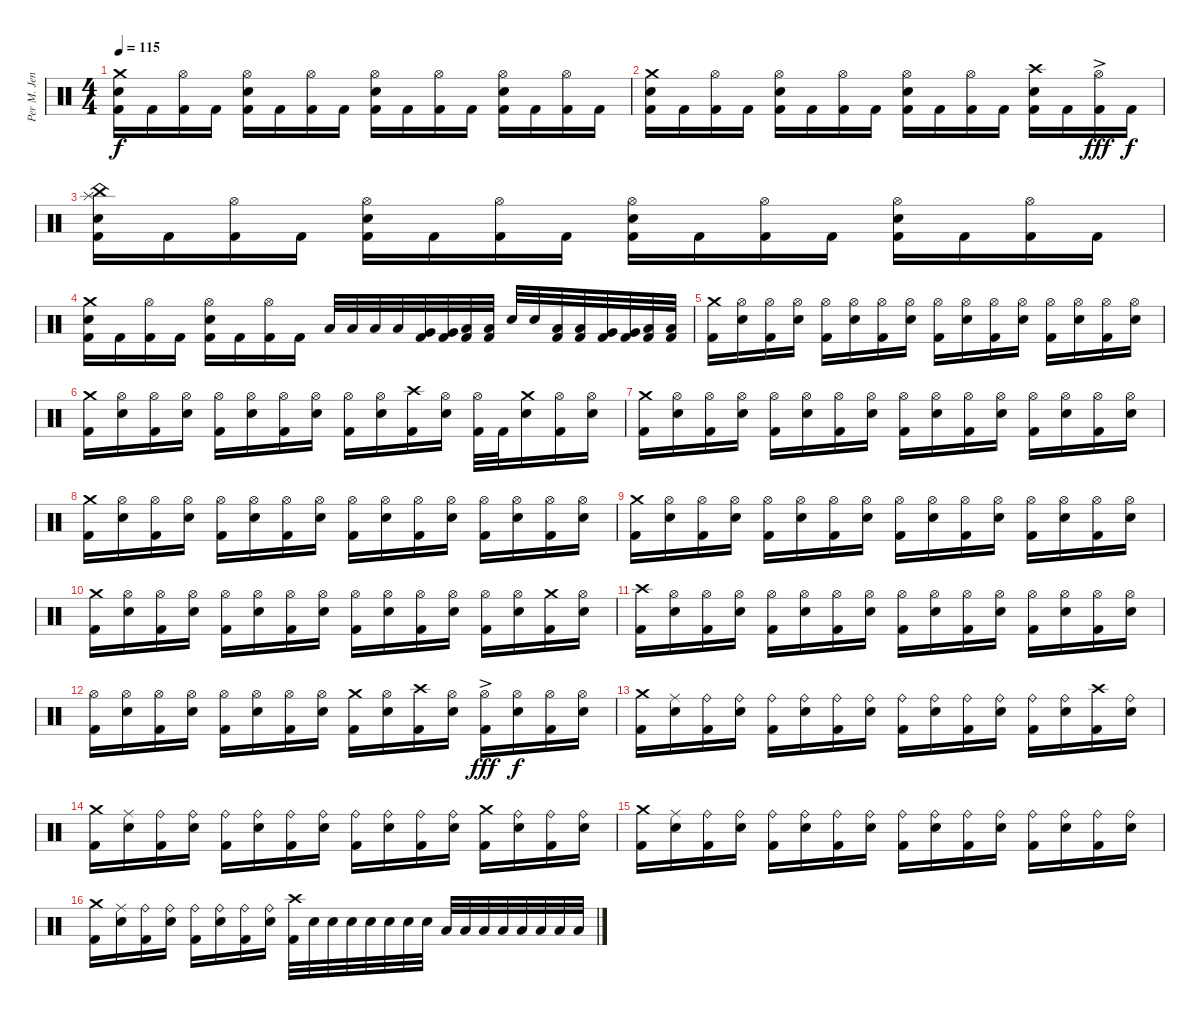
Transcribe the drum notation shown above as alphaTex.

\track ("Per M. Jensen (Ex-Drums)" "Per M. Jen") {instrument percussion}
\staff {score}
\articulation defaults
\ts (4 4)
\tempo 115
\clef neutral
\ks c
("Crash medium (hit)" "Snare (hit) 2" "Kick (hit) 2").16{dy f} "Kick (hit) 2".16 ("Hi-Hat (open)" "Kick (hit) 2").16 "Kick (hit) 2".16 ("Hi-Hat (open)" "Snare (hit) 2" "Kick (hit) 2").16 "Kick (hit) 2".16 ("Hi-Hat (open)" "Kick (hit) 2").16 "Kick (hit) 2".16 ("Hi-Hat (open)" "Snare (hit) 2" "Kick (hit) 2").16 "Kick (hit) 2".16 ("Hi-Hat (open)" "Kick (hit) 2").16 "Kick (hit) 2".16 ("Hi-Hat (open)" "Snare (hit) 2" "Kick (hit) 2").16 "Kick (hit) 2".16 ("Hi-Hat (open)" "Kick (hit) 2").16 "Kick (hit) 2".16 |
("Crash medium (hit)" "Snare (hit) 2" "Kick (hit) 2").16 "Kick (hit) 2".16 ("Hi-Hat (open)" "Kick (hit) 2").16 "Kick (hit) 2".16 ("Hi-Hat (open)" "Snare (hit) 2" "Kick (hit) 2").16 "Kick (hit) 2".16 ("Hi-Hat (open)" "Kick (hit) 2").16 "Kick (hit) 2".16 ("Hi-Hat (open)" "Snare (hit) 2" "Kick (hit) 2").16 "Kick (hit) 2".16 ("Hi-Hat (open)" "Kick (hit) 2").16 "Kick (hit) 2".16 ("Crash high (hit)" "Snare (hit) 2" "Kick (hit) 2").16 "Kick (hit) 2".16 ("Hi-Hat (open)"{ac} "Kick (hit) 2").16{dy fff} "Kick (hit) 2".16{dy f} |
("Splash (hit)" "China (hit)" "Snare (hit) 2" "Kick (hit) 2").16 "Kick (hit) 2".16 ("Hi-Hat (open)" "Kick (hit) 2").16 "Kick (hit) 2".16 ("Hi-Hat (open)" "Snare (hit) 2" "Kick (hit) 2").16 "Kick (hit) 2".16 ("Hi-Hat (open)" "Kick (hit) 2").16 "Kick (hit) 2".16 ("Hi-Hat (open)" "Snare (hit) 2" "Kick (hit) 2").16 "Kick (hit) 2".16 ("Hi-Hat (open)" "Kick (hit) 2").16 "Kick (hit) 2".16 ("Hi-Hat (open)" "Snare (hit) 2" "Kick (hit) 2").16 "Kick (hit) 2".16 ("Hi-Hat (open)" "Kick (hit) 2").16 "Kick (hit) 2".16 |
("Crash medium (hit)" "Snare (hit) 2" "Kick (hit) 2").16 "Kick (hit) 2".16 ("Hi-Hat (open)" "Kick (hit) 2").16 "Kick (hit) 2".16 ("Hi-Hat (open)" "Snare (hit) 2" "Kick (hit) 2").16 "Kick (hit) 2".16 ("Hi-Hat (open)" "Kick (hit) 2").16 "Kick (hit) 2".16 "Low Tom (hit)".32 "Low Tom (hit)".32 "Low Tom (hit)".32 "Low Tom (hit)".32 ("Very Low Tom (hit)" "Kick (hit) 2").32 ("Very Low Tom (hit)" "Kick (hit) 2").32 ("Low Floor Tom (hit)" "Kick (hit) 2").32 ("Low Floor Tom (hit)" "Kick (hit) 2").32 "Snare (hit) 2".32 "Snare (hit) 2".32 ("Low Tom (hit)" "Kick (hit) 2").32 ("Low Tom (hit)" "Kick (hit) 2").32 ("Very Low Tom (hit)" "Kick (hit) 2").32 ("Very Low Tom (hit)" "Kick (hit) 2").32 ("Low Floor Tom (hit)" "Kick (hit) 2").32 ("Low Floor Tom (hit)" "Kick (hit) 2").32 |
("Crash medium (hit)" "Kick (hit) 2").16 ("Hi-Hat (open)" "Snare (hit) 2").16 ("Hi-Hat (open)" "Kick (hit) 2").16 ("Hi-Hat (open)" "Snare (hit) 2").16 ("Hi-Hat (open)" "Kick (hit) 2").16 ("Hi-Hat (open)" "Snare (hit) 2").16 ("Hi-Hat (open)" "Kick (hit) 2").16 ("Hi-Hat (open)" "Snare (hit) 2").16 ("Hi-Hat (open)" "Kick (hit) 2").16 ("Hi-Hat (open)" "Snare (hit) 2").16 ("Hi-Hat (open)" "Kick (hit) 2").16 ("Hi-Hat (open)" "Snare (hit) 2").16 ("Hi-Hat (open)" "Kick (hit) 2").16 ("Hi-Hat (open)" "Snare (hit) 2").16 ("Hi-Hat (open)" "Kick (hit) 2").16 ("Hi-Hat (open)" "Snare (hit) 2").16 |
("Crash medium (hit)" "Kick (hit) 2").16 ("Hi-Hat (open)" "Snare (hit) 2").16 ("Hi-Hat (open)" "Kick (hit) 2").16 ("Hi-Hat (open)" "Snare (hit) 2").16 ("Hi-Hat (open)" "Kick (hit) 2").16 ("Hi-Hat (open)" "Snare (hit) 2").16 ("Hi-Hat (open)" "Kick (hit) 2").16 ("Hi-Hat (open)" "Snare (hit) 2").16 ("Hi-Hat (open)" "Kick (hit) 2").16 ("Hi-Hat (open)" "Snare (hit) 2").16 ("Crash high (hit)" "Kick (hit) 2").16 ("Hi-Hat (open)" "Snare (hit) 2").16 ("Hi-Hat (open)" "Kick (hit) 2").32 "Kick (hit) 2".32 ("Crash medium (hit)" "Snare (hit) 2").16 ("Hi-Hat (open)" "Kick (hit) 2").16 ("Hi-Hat (open)" "Snare (hit) 2").16 |
("Crash medium (hit)" "Kick (hit) 2").16 ("Hi-Hat (open)" "Snare (hit) 2").16 ("Hi-Hat (open)" "Kick (hit) 2").16 ("Hi-Hat (open)" "Snare (hit) 2").16 ("Hi-Hat (open)" "Kick (hit) 2").16 ("Hi-Hat (open)" "Snare (hit) 2").16 ("Hi-Hat (open)" "Kick (hit) 2").16 ("Hi-Hat (open)" "Snare (hit) 2").16 ("Hi-Hat (open)" "Kick (hit) 2").16 ("Hi-Hat (open)" "Snare (hit) 2").16 ("Hi-Hat (open)" "Kick (hit) 2").16 ("Hi-Hat (open)" "Snare (hit) 2").16 ("Hi-Hat (open)" "Kick (hit) 2").16 ("Hi-Hat (open)" "Snare (hit) 2").16 ("Hi-Hat (open)" "Kick (hit) 2").16 ("Hi-Hat (open)" "Snare (hit) 2").16 |
("Crash medium (hit)" "Kick (hit) 2").16 ("Hi-Hat (open)" "Snare (hit) 2").16 ("Hi-Hat (open)" "Kick (hit) 2").16 ("Hi-Hat (open)" "Snare (hit) 2").16 ("Hi-Hat (open)" "Kick (hit) 2").16 ("Hi-Hat (open)" "Snare (hit) 2").16 ("Hi-Hat (open)" "Kick (hit) 2").16 ("Hi-Hat (open)" "Snare (hit) 2").16 ("Hi-Hat (open)" "Kick (hit) 2").16 ("Hi-Hat (open)" "Snare (hit) 2").16 ("Hi-Hat (open)" "Kick (hit) 2").16 ("Hi-Hat (open)" "Snare (hit) 2").16 ("Hi-Hat (open)" "Kick (hit) 2").16 ("Hi-Hat (open)" "Snare (hit) 2").16 ("Hi-Hat (open)" "Kick (hit) 2").16 ("Hi-Hat (open)" "Snare (hit) 2").16 |
("Crash medium (hit)" "Kick (hit) 2").16 ("Hi-Hat (open)" "Snare (hit) 2").16 ("Hi-Hat (open)" "Kick (hit) 2").16 ("Hi-Hat (open)" "Snare (hit) 2").16 ("Hi-Hat (open)" "Kick (hit) 2").16 ("Hi-Hat (open)" "Snare (hit) 2").16 ("Hi-Hat (open)" "Kick (hit) 2").16 ("Hi-Hat (open)" "Snare (hit) 2").16 ("Hi-Hat (open)" "Kick (hit) 2").16 ("Hi-Hat (open)" "Snare (hit) 2").16 ("Hi-Hat (open)" "Kick (hit) 2").16 ("Hi-Hat (open)" "Snare (hit) 2").16 ("Hi-Hat (open)" "Kick (hit) 2").16 ("Hi-Hat (open)" "Snare (hit) 2").16 ("Hi-Hat (open)" "Kick (hit) 2").16 ("Hi-Hat (open)" "Snare (hit) 2").16 |
("Crash medium (hit)" "Kick (hit) 2").16 ("Hi-Hat (open)" "Snare (hit) 2").16 ("Hi-Hat (open)" "Kick (hit) 2").16 ("Hi-Hat (open)" "Snare (hit) 2").16 ("Hi-Hat (open)" "Kick (hit) 2").16 ("Hi-Hat (open)" "Snare (hit) 2").16 ("Hi-Hat (open)" "Kick (hit) 2").16 ("Hi-Hat (open)" "Snare (hit) 2").16 ("Hi-Hat (open)" "Kick (hit) 2").16 ("Hi-Hat (open)" "Snare (hit) 2").16 ("Hi-Hat (open)" "Kick (hit) 2").16 ("Hi-Hat (open)" "Snare (hit) 2").16 ("Hi-Hat (open)" "Kick (hit) 2").16 ("Hi-Hat (open)" "Snare (hit) 2").16 ("Crash medium (hit)" "Kick (hit) 2").16 ("Hi-Hat (open)" "Snare (hit) 2").16 |
("Crash high (hit)" "Kick (hit) 2").16 ("Hi-Hat (open)" "Snare (hit) 2").16 ("Hi-Hat (open)" "Kick (hit) 2").16 ("Hi-Hat (open)" "Snare (hit) 2").16 ("Hi-Hat (open)" "Kick (hit) 2").16 ("Hi-Hat (open)" "Snare (hit) 2").16 ("Hi-Hat (open)" "Kick (hit) 2").16 ("Hi-Hat (open)" "Snare (hit) 2").16 ("Hi-Hat (open)" "Kick (hit) 2").16 ("Hi-Hat (open)" "Snare (hit) 2").16 ("Hi-Hat (open)" "Kick (hit) 2").16 ("Hi-Hat (open)" "Snare (hit) 2").16 ("Hi-Hat (open)" "Kick (hit) 2").16 ("Hi-Hat (open)" "Snare (hit) 2").16 ("Hi-Hat (open)" "Kick (hit) 2").16 ("Hi-Hat (open)" "Snare (hit) 2").16 |
("Hi-Hat (open)" "Kick (hit) 2").16 ("Hi-Hat (open)" "Snare (hit) 2").16 ("Hi-Hat (open)" "Kick (hit) 2").16 ("Hi-Hat (open)" "Snare (hit) 2").16 ("Hi-Hat (open)" "Kick (hit) 2").16 ("Hi-Hat (open)" "Snare (hit) 2").16 ("Hi-Hat (open)" "Kick (hit) 2").16 ("Hi-Hat (open)" "Snare (hit) 2").16 ("Crash medium (hit)" "Kick (hit) 2").16 ("Hi-Hat (open)" "Snare (hit) 2").16 ("Crash high (hit)" "Kick (hit) 2").16 ("Hi-Hat (open)" "Snare (hit) 2").16 ("Hi-Hat (open)"{ac} "Kick (hit) 2").16{dy fff} ("Hi-Hat (open)" "Snare (hit) 2").16{dy f} ("Hi-Hat (open)" "Kick (hit) 2").16 ("Hi-Hat (open)" "Snare (hit) 2").16 |
("Crash medium (hit)" "Kick (hit) 2").16 ("Ride (middle)" "Snare (hit) 2").16 ("Ride (bell)" "Kick (hit) 2").16 ("Ride (bell)" "Snare (hit) 2").16 ("Ride (bell)" "Kick (hit) 2").16 ("Ride (bell)" "Snare (hit) 2").16 ("Ride (bell)" "Kick (hit) 2").16 ("Ride (bell)" "Snare (hit) 2").16 ("Ride (bell)" "Kick (hit) 2").16 ("Ride (bell)" "Snare (hit) 2").16 ("Ride (bell)" "Kick (hit) 2").16 ("Ride (bell)" "Snare (hit) 2").16 ("Ride (bell)" "Kick (hit) 2").16 ("Ride (bell)" "Snare (hit) 2").16 ("Crash high (hit)" "Kick (hit) 2").16 ("Ride (bell)" "Snare (hit) 2").16 |
("Crash medium (hit)" "Kick (hit) 2").16 ("Ride (middle)" "Snare (hit) 2").16 ("Ride (bell)" "Kick (hit) 2").16 ("Ride (bell)" "Snare (hit) 2").16 ("Ride (bell)" "Kick (hit) 2").16 ("Ride (bell)" "Snare (hit) 2").16 ("Ride (bell)" "Kick (hit) 2").16 ("Ride (bell)" "Snare (hit) 2").16 ("Ride (bell)" "Kick (hit) 2").16 ("Ride (bell)" "Snare (hit) 2").16 ("Ride (bell)" "Kick (hit) 2").16 ("Ride (bell)" "Snare (hit) 2").16 ("Crash medium (hit)" "Kick (hit) 2").16 ("Ride (bell)" "Snare (hit) 2").16 ("Ride (bell)" "Kick (hit) 2").16 ("Ride (bell)" "Snare (hit) 2").16 |
("Crash medium (hit)" "Kick (hit) 2").16 ("Ride (middle)" "Snare (hit) 2").16 ("Ride (bell)" "Kick (hit) 2").16 ("Ride (bell)" "Snare (hit) 2").16 ("Ride (bell)" "Kick (hit) 2").16 ("Ride (bell)" "Snare (hit) 2").16 ("Ride (bell)" "Kick (hit) 2").16 ("Ride (bell)" "Snare (hit) 2").16 ("Ride (bell)" "Kick (hit) 2").16 ("Ride (bell)" "Snare (hit) 2").16 ("Ride (bell)" "Kick (hit) 2").16 ("Ride (bell)" "Snare (hit) 2").16 ("Ride (bell)" "Kick (hit) 2").16 ("Ride (bell)" "Snare (hit) 2").16 ("Ride (bell)" "Kick (hit) 2").16 ("Ride (bell)" "Snare (hit) 2").16 |
("Crash medium (hit)" "Kick (hit) 2").16 ("Ride (middle)" "Snare (hit) 2").16 ("Ride (bell)" "Kick (hit) 2").16 ("Ride (bell)" "Snare (hit) 2").16 ("Ride (bell)" "Kick (hit) 2").16 ("Ride (bell)" "Snare (hit) 2").16 ("Ride (bell)" "Kick (hit) 2").16 ("Ride (bell)" "Snare (hit) 2").16 ("Crash high (hit)" "Kick (hit) 2").32 "Snare (hit) 2".32 "Snare (hit) 2".32 "Snare (hit) 2".32 "Snare (hit) 2".32 "Snare (hit) 2".32 "Snare (hit) 2".32 "Snare (hit) 2".32 "Low Tom (hit)".32 "Low Tom (hit)".32 "Low Tom (hit)".32 "Low Tom (hit)".32 "Low Floor Tom (hit)".32 "Low Floor Tom (hit)".32 "Low Floor Tom (hit)".32 "Low Floor Tom (hit)".32
